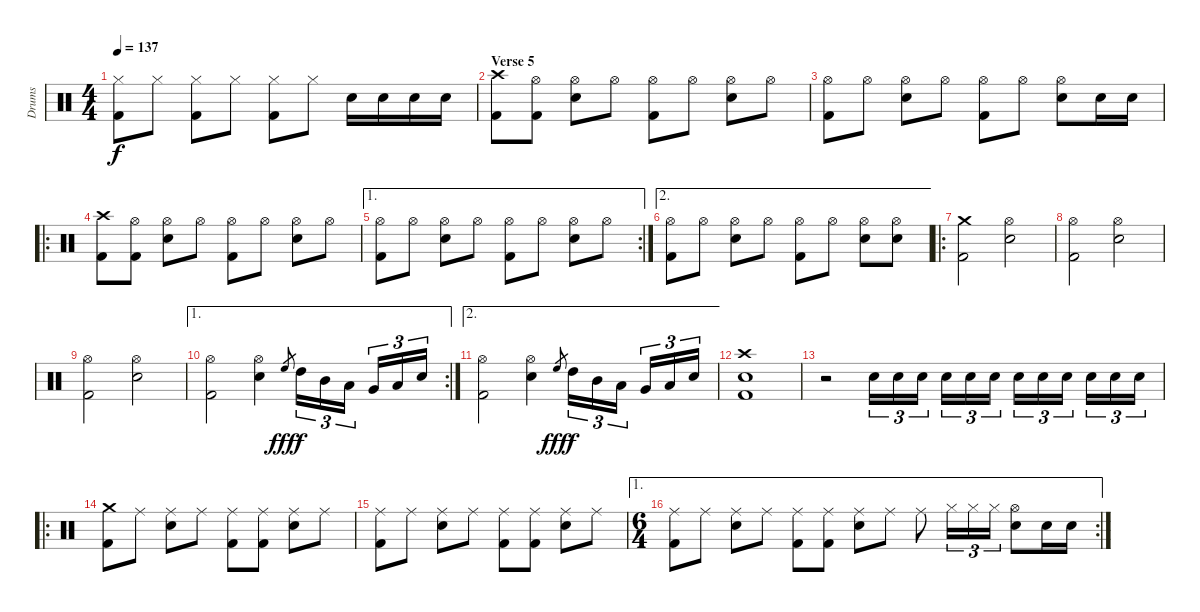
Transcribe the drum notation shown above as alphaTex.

\track ("Drums" "Drums") {instrument percussion}
\staff {score}
\articulation defaults
\ts (4 4)
\tempo 137
\clef neutral
\ks c
("Hi-Hat (closed)" "Kick (hit) 2").8{dy f} "Hi-Hat (closed)".8 ("Hi-Hat (closed)" "Kick (hit) 2").8 "Hi-Hat (closed)".8 ("Hi-Hat (closed)" "Kick (hit) 2").8 "Hi-Hat (closed)".8 "Electric Snare (hit)".16 "Electric Snare (hit)".16 "Electric Snare (hit)".16 "Electric Snare (hit)".16 |
\section ("" "Verse 5")
("Crash high (hit)" "Kick (hit) 2").8 ("Hi-Hat (open)" "Kick (hit) 2").8 ("Hi-Hat (open)" "Electric Snare (hit)").8 "Hi-Hat (open)".8 ("Hi-Hat (open)" "Kick (hit) 2").8 "Hi-Hat (open)".8 ("Hi-Hat (open)" "Electric Snare (hit)").8 "Hi-Hat (open)".8 |
("Hi-Hat (open)" "Kick (hit) 2").8 "Hi-Hat (open)".8 ("Hi-Hat (open)" "Electric Snare (hit)").8 "Hi-Hat (open)".8 ("Hi-Hat (open)" "Kick (hit) 2").8 "Hi-Hat (open)".8 ("Hi-Hat (open)" "Electric Snare (hit)").8 "Electric Snare (hit)".16 "Electric Snare (hit)".16 |
\ro
("Crash high (hit)" "Kick (hit) 2").8 ("Hi-Hat (open)" "Kick (hit) 2").8 ("Hi-Hat (open)" "Electric Snare (hit)").8 "Hi-Hat (open)".8 ("Hi-Hat (open)" "Kick (hit) 2").8 "Hi-Hat (open)".8 ("Hi-Hat (open)" "Electric Snare (hit)").8 "Hi-Hat (open)".8 |
\ae 1
\rc 2
("Hi-Hat (open)" "Kick (hit) 2").8 "Hi-Hat (open)".8 ("Hi-Hat (open)" "Electric Snare (hit)").8 "Hi-Hat (open)".8 ("Hi-Hat (open)" "Kick (hit) 2").8 "Hi-Hat (open)".8 ("Hi-Hat (open)" "Electric Snare (hit)").8 "Hi-Hat (open)".8 |
\ae 2
("Hi-Hat (open)" "Kick (hit) 2").8 "Hi-Hat (open)".8 ("Hi-Hat (open)" "Electric Snare (hit)").8 "Hi-Hat (open)".8 ("Hi-Hat (open)" "Kick (hit) 2").8 "Hi-Hat (open)".8 ("Hi-Hat (open)" "Electric Snare (hit)").8 ("Hi-Hat (open)" "Electric Snare (hit)").8 |
\ro
("Crash medium (hit)" "Kick (hit) 2").2 ("Hi-Hat (open)" "Electric Snare (hit)").2 |
("Hi-Hat (open)" "Kick (hit) 2").2 ("Hi-Hat (open)" "Electric Snare (hit)").2 |
("Hi-Hat (open)" "Kick (hit) 2").2 ("Hi-Hat (open)" "Electric Snare (hit)").2 |
\ae 1
\rc 2
("Hi-Hat (open)" "Kick (hit) 2").2 ("Hi-Hat (open)" "Electric Snare (hit)").4 "High Floor Tom (hit)".8{gr dy fff} "High Tom (hit)".16{tu (3 2) dy f} "Mid Tom (hit)".16{tu (3 2)} "Low Tom (hit)".16{tu (3 2)} "Very Low Tom (hit)".16{tu (3 2)} "Low Floor Tom (hit)".16{tu (3 2)} "Electric Snare (hit)".16{tu (3 2)} |
\ae 2
("Hi-Hat (open)" "Kick (hit) 2").2 ("Hi-Hat (open)" "Electric Snare (hit)").4 "High Floor Tom (hit)".8{gr dy fff} "High Tom (hit)".16{tu (3 2) dy f} "Mid Tom (hit)".16{tu (3 2)} "Low Tom (hit)".16{tu (3 2)} "Very Low Tom (hit)".16{tu (3 2)} "Low Floor Tom (hit)".16{tu (3 2)} "Electric Snare (hit)".16{tu (3 2)} |
("Crash high (hit)" "Kick (hit) 2" "Electric Snare (hit)").1 |
r.2 "Electric Snare (hit)".16{tu (3 2)} "Electric Snare (hit)".16{tu (3 2)} "Electric Snare (hit)".16{tu (3 2)} "Electric Snare (hit)".16{tu (3 2)} "Electric Snare (hit)".16{tu (3 2)} "Electric Snare (hit)".16{tu (3 2)} "Electric Snare (hit)".16{tu (3 2)} "Electric Snare (hit)".16{tu (3 2)} "Electric Snare (hit)".16{tu (3 2)} "Electric Snare (hit)".16{tu (3 2)} "Electric Snare (hit)".16{tu (3 2)} "Electric Snare (hit)".16{tu (3 2)} |
\ro
("Crash medium (hit)" "Kick (hit) 2").8 "Ride (middle)".8 ("Ride (middle)" "Electric Snare (hit)").8 "Ride (middle)".8 ("Ride (middle)" "Kick (hit) 2").8 ("Ride (middle)" "Kick (hit) 2").8 ("Ride (middle)" "Electric Snare (hit)").8 "Ride (middle)".8 |
("Ride (middle)" "Kick (hit) 2").8 "Ride (middle)".8 ("Ride (middle)" "Electric Snare (hit)").8 "Ride (middle)".8 ("Ride (middle)" "Kick (hit) 2").8 ("Ride (middle)" "Kick (hit) 2").8 ("Ride (middle)" "Electric Snare (hit)").8 "Ride (middle)".8 |
\ae 1
\rc 2
\ts (6 4)
("Ride (middle)" "Kick (hit) 2").8 "Ride (middle)".8 ("Ride (middle)" "Electric Snare (hit)").8 "Ride (middle)".8 ("Ride (middle)" "Kick (hit) 2").8 ("Ride (middle)" "Kick (hit) 2").8 ("Ride (middle)" "Electric Snare (hit)").8 "Ride (middle)".8 "Ride (middle)".8 "Hi-Hat (closed)".16{tu (3 2)} "Hi-Hat (closed)".16{tu (3 2)} "Hi-Hat (closed)".16{tu (3 2)} ("Hi-Hat (open)" "Electric Snare (hit)").8 "Electric Snare (hit)".16 "Electric Snare (hit)".16
